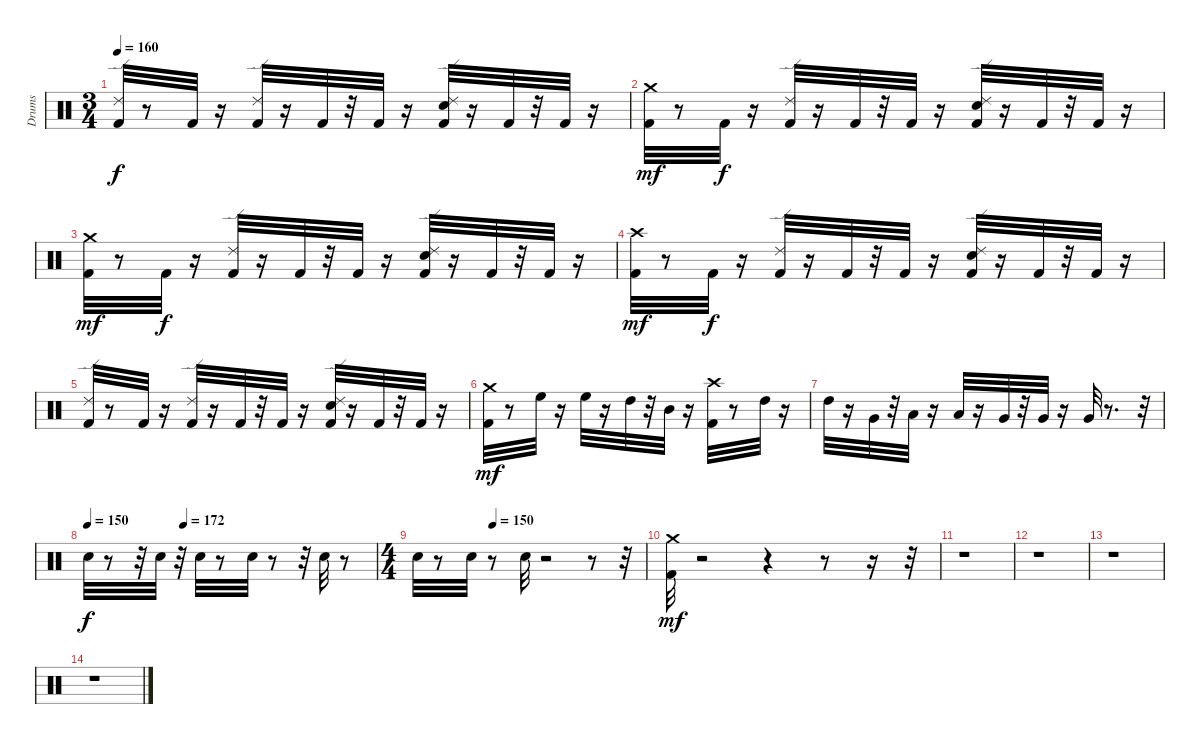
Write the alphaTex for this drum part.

\track ("Drums" "Drums") {instrument percussion}
\staff {score}
\articulation defaults
\ts (3 4)
\tempo 160
\clef neutral
\ks c
("Kick (hit) 2" "Ride (edge) 2").32{dy f} r.8 "Kick (hit) 2".32 r.16 ("Kick (hit) 2" "Ride (edge) 2").32 r.16 "Kick (hit) 2".32 r.32 "Kick (hit) 2".32 r.16 ("Kick (hit) 2" "Snare (hit) 2" "Ride (edge) 2").32 r.16 "Kick (hit) 2".32 r.32 "Kick (hit) 2".32 r.16 |
("Kick (hit) 2" "Crash medium (hit)").32{dy mf} r.8 "Kick (hit) 2".32{dy f} r.16 ("Kick (hit) 2" "Ride (edge) 2").32 r.16 "Kick (hit) 2".32 r.32 "Kick (hit) 2".32 r.16 ("Kick (hit) 2" "Snare (hit) 2" "Ride (edge) 2").32 r.16 "Kick (hit) 2".32 r.32 "Kick (hit) 2".32 r.16 |
("Kick (hit) 2" "Crash medium (hit)").32{dy mf} r.8 "Kick (hit) 2".32{dy f} r.16 ("Kick (hit) 2" "Ride (edge) 2").32 r.16 "Kick (hit) 2".32 r.32 "Kick (hit) 2".32 r.16 ("Kick (hit) 2" "Snare (hit) 2" "Ride (edge) 2").32 r.16 "Kick (hit) 2".32 r.32 "Kick (hit) 2".32 r.16 |
("Kick (hit) 2" "Crash high (hit)").32{dy mf} r.8 "Kick (hit) 2".32{dy f} r.16 ("Kick (hit) 2" "Ride (edge) 2").32 r.16 "Kick (hit) 2".32 r.32 "Kick (hit) 2".32 r.16 ("Kick (hit) 2" "Snare (hit) 2" "Ride (edge) 2").32 r.16 "Kick (hit) 2".32 r.32 "Kick (hit) 2".32 r.16 |
("Kick (hit) 2" "Ride (edge) 2").32 r.8 "Kick (hit) 2".32 r.16 ("Kick (hit) 2" "Ride (edge) 2").32 r.16 "Kick (hit) 2".32 r.32 "Kick (hit) 2".32 r.16 ("Kick (hit) 2" "Snare (hit) 2" "Ride (edge) 2").32 r.16 "Kick (hit) 2".32 r.32 "Kick (hit) 2".32 r.16 |
("Kick (hit) 2" "Crash medium (hit)").32{dy mf} r.8 "High Floor Tom (hit)".32 r.16 "High Floor Tom (hit)".32 r.16 "High Tom (hit)".32 r.32 "Mid Tom (hit)".32 r.16 ("Kick (hit) 2" "Crash high (hit)").32 r.8 "High Tom (hit)".32 r.16 |
"High Tom (hit)".32 r.16 "Very Low Tom (hit)".32 r.32 "Low Tom (hit)".32 r.16 "Low Tom (hit)".32 r.16 "Very Low Tom (hit)".32 r.32 "Very Low Tom (hit)".32 r.16 "Very Low Tom (hit)".32 r.8{d} r.32 |
\tempo 150
\tempo (172 0.3333333333333333)
"Snare (hit) 2".32{dy f} r.8 r.32 "Snare (hit) 2".32 r.32 "Snare (hit) 2".32 r.8 "Snare (hit) 2".32 r.8 r.32 "Snare (hit) 2".32 r.8 |
\ts (4 4)
\tempo (160 0.3333333333333333)
\tempo (150 0.3333333333333333)
"Snare (hit) 2".32 r.8 "Snare (hit) 2".32 r.8 "Snare (hit) 2".32 r.2 r.8 r.32 |
("Kick (hit) 2" "Crash medium (hit)").32{dy mf} r.2 r.4 r.8 r.16 r.32 |
r.1 |
r.1 |
r.1 |
r.1
